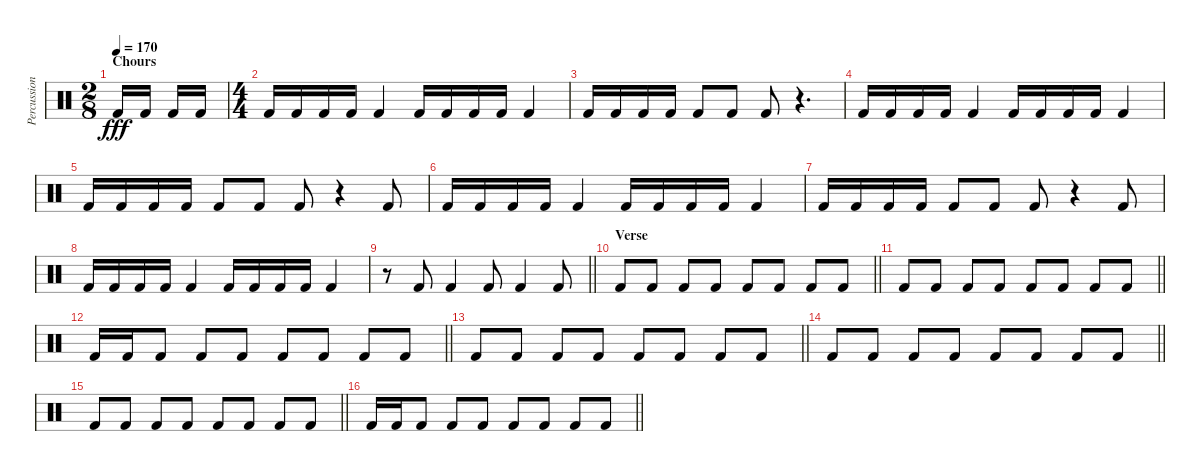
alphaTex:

\track ("Percussioni" "Percussion") {instrument percussion}
\staff
\articulation defaults
\ts (2 8)
\section ("" "Chours")
\tempo 170
\clef neutral
\ks c "Kick (hit) 2".16{dy fff} "Kick (hit) 2".16 "Kick (hit) 2".16 "Kick (hit) 2".16
|
\ts (4 4)
"Kick (hit) 2".16 "Kick (hit) 2".16 "Kick (hit) 2".16 "Kick (hit) 2".16 "Kick (hit) 2".4 "Kick (hit) 2".16 "Kick (hit) 2".16 "Kick (hit) 2".16 "Kick (hit) 2".16 "Kick (hit) 2".4 |
"Kick (hit) 2".16 "Kick (hit) 2".16 "Kick (hit) 2".16 "Kick (hit) 2".16 "Kick (hit) 2".8 "Kick (hit) 2".8 "Kick (hit) 2".8 r.4{d} |
"Kick (hit) 2".16 "Kick (hit) 2".16 "Kick (hit) 2".16 "Kick (hit) 2".16 "Kick (hit) 2".4 "Kick (hit) 2".16 "Kick (hit) 2".16 "Kick (hit) 2".16 "Kick (hit) 2".16 "Kick (hit) 2".4 |
"Kick (hit) 2".16 "Kick (hit) 2".16 "Kick (hit) 2".16 "Kick (hit) 2".16 "Kick (hit) 2".8 "Kick (hit) 2".8 "Kick (hit) 2".8 r.4 "Kick (hit) 2".8 |
"Kick (hit) 2".16 "Kick (hit) 2".16 "Kick (hit) 2".16 "Kick (hit) 2".16 "Kick (hit) 2".4 "Kick (hit) 2".16 "Kick (hit) 2".16 "Kick (hit) 2".16 "Kick (hit) 2".16 "Kick (hit) 2".4 |
"Kick (hit) 2".16 "Kick (hit) 2".16 "Kick (hit) 2".16 "Kick (hit) 2".16 "Kick (hit) 2".8 "Kick (hit) 2".8 "Kick (hit) 2".8 r.4 "Kick (hit) 2".8 |
"Kick (hit) 2".16 "Kick (hit) 2".16 "Kick (hit) 2".16 "Kick (hit) 2".16 "Kick (hit) 2".4 "Kick (hit) 2".16 "Kick (hit) 2".16 "Kick (hit) 2".16 "Kick (hit) 2".16 "Kick (hit) 2".4 |
\barLineRight lightlight
r.8 "Kick (hit) 2".8 "Kick (hit) 2".4 "Kick (hit) 2".8 "Kick (hit) 2".4 "Kick (hit) 2".8 |
\section ("" "Verse")
\barLineRight lightlight "Kick (hit) 2".8 "Kick (hit) 2".8 "Kick (hit) 2".8 "Kick (hit) 2".8 "Kick (hit) 2".8 "Kick (hit) 2".8 "Kick (hit) 2".8 "Kick (hit) 2".8
|
\barLineRight lightlight "Kick (hit) 2".8 "Kick (hit) 2".8 "Kick (hit) 2".8 "Kick (hit) 2".8 "Kick (hit) 2".8 "Kick (hit) 2".8 "Kick (hit) 2".8 "Kick (hit) 2".8
|
\barLineRight lightlight "Kick (hit) 2".16 "Kick (hit) 2".16 "Kick (hit) 2".8 "Kick (hit) 2".8 "Kick (hit) 2".8 "Kick (hit) 2".8 "Kick (hit) 2".8 "Kick (hit) 2".8 "Kick (hit) 2".8
|
\barLineRight lightlight "Kick (hit) 2".8 "Kick (hit) 2".8 "Kick (hit) 2".8 "Kick (hit) 2".8 "Kick (hit) 2".8 "Kick (hit) 2".8 "Kick (hit) 2".8 "Kick (hit) 2".8
|
\barLineRight lightlight "Kick (hit) 2".8 "Kick (hit) 2".8 "Kick (hit) 2".8 "Kick (hit) 2".8 "Kick (hit) 2".8 "Kick (hit) 2".8 "Kick (hit) 2".8 "Kick (hit) 2".8
|
\barLineRight lightlight "Kick (hit) 2".8 "Kick (hit) 2".8 "Kick (hit) 2".8 "Kick (hit) 2".8 "Kick (hit) 2".8 "Kick (hit) 2".8 "Kick (hit) 2".8 "Kick (hit) 2".8
|
\barLineRight lightlight "Kick (hit) 2".16 "Kick (hit) 2".16 "Kick (hit) 2".8 "Kick (hit) 2".8 "Kick (hit) 2".8 "Kick (hit) 2".8 "Kick (hit) 2".8 "Kick (hit) 2".8 "Kick (hit) 2".8
